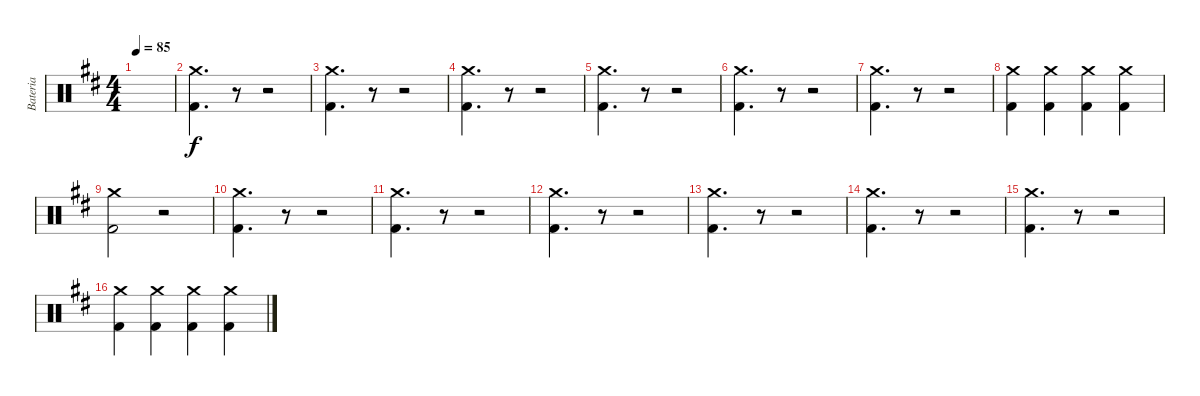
\track ("Bateria" "Bateria") {instrument percussion}
\staff {score}
\articulation defaults
\ts (4 4)
\tempo 85
\clef neutral
\ks d
|
("Crash medium (hit)" "Kick (hit) 2").4{d} r.8 r.2 |
("Crash medium (hit)" "Kick (hit) 2").4{d} r.8 r.2 |
("Crash medium (hit)" "Kick (hit) 2").4{d} r.8 r.2 |
("Crash medium (hit)" "Kick (hit) 2").4{d} r.8 r.2 |
("Crash medium (hit)" "Kick (hit) 2").4{d} r.8 r.2 |
("Crash medium (hit)" "Kick (hit) 2").4{d} r.8 r.2 |
("Crash medium (hit)" "Kick (hit) 2").4 ("Crash medium (hit)" "Kick (hit) 2").4 ("Crash medium (hit)" "Kick (hit) 2").4 ("Crash medium (hit)" "Kick (hit) 2").4 |
("Crash medium (hit)" "Kick (hit) 2").2 r.2 |
("Crash medium (hit)" "Kick (hit) 2").4{d} r.8 r.2 |
("Crash medium (hit)" "Kick (hit) 2").4{d} r.8 r.2 |
("Crash medium (hit)" "Kick (hit) 2").4{d} r.8 r.2 |
("Crash medium (hit)" "Kick (hit) 2").4{d} r.8 r.2 |
("Crash medium (hit)" "Kick (hit) 2").4{d} r.8 r.2 |
("Crash medium (hit)" "Kick (hit) 2").4{d} r.8 r.2 |
("Crash medium (hit)" "Kick (hit) 2").4 ("Crash medium (hit)" "Kick (hit) 2").4 ("Crash medium (hit)" "Kick (hit) 2").4 ("Crash medium (hit)" "Kick (hit) 2").4
